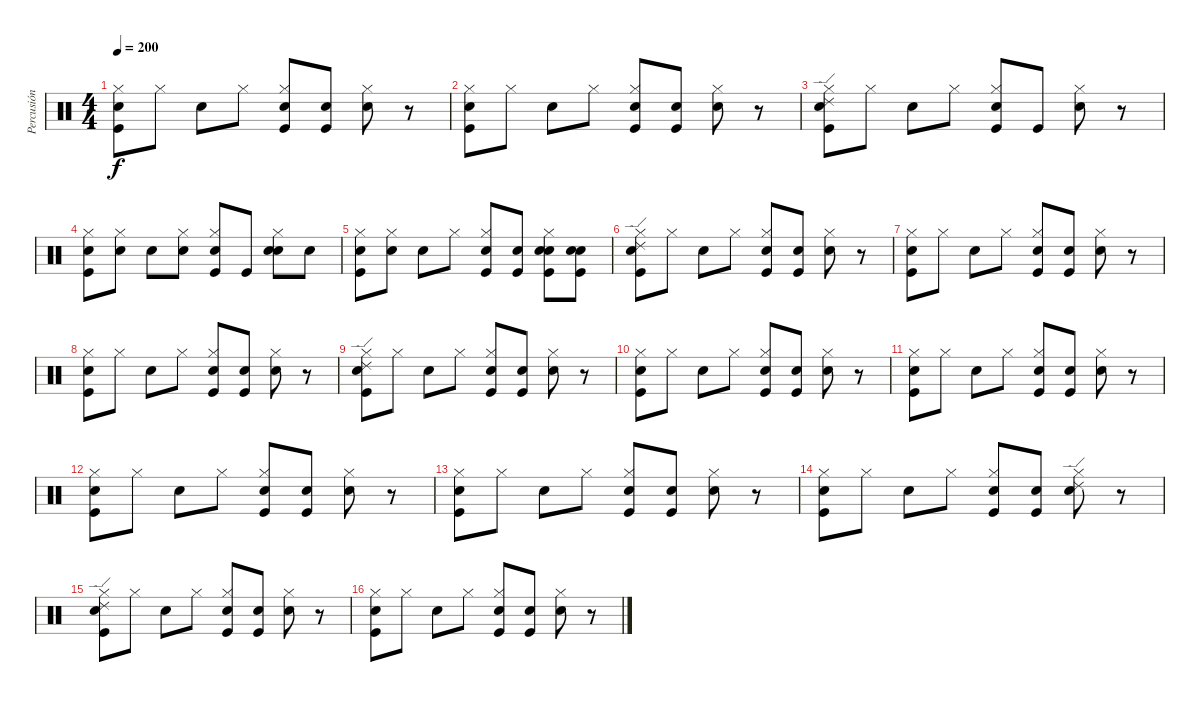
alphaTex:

\track ("Percusión" "Percusión") {instrument percussion}
\staff {score}
\articulation defaults
\ts (4 4)
\tempo 200
\clef neutral
\ks c
("Snare (hit) 2" "Hi-Hat (closed)" "Kick (hit)").8{dy f} "Hi-Hat (closed)".8 "Electric Snare (hit)".8 "Hi-Hat (closed)".8 ("Snare (hit) 2" "Hi-Hat (closed)" "Kick (hit)").8 ("Snare (hit) 2" "Kick (hit)").8 ("Hi-Hat (closed)" "Electric Snare (hit)").8 r.8 |
("Snare (hit) 2" "Hi-Hat (closed)" "Kick (hit)").8 "Hi-Hat (closed)".8 "Electric Snare (hit)".8 "Hi-Hat (closed)".8 ("Snare (hit) 2" "Hi-Hat (closed)" "Kick (hit)").8 ("Snare (hit) 2" "Kick (hit)").8 ("Hi-Hat (closed)" "Electric Snare (hit)").8 r.8 |
("Snare (hit) 2" "Hi-Hat (closed)" "Ride (edge) 2" "Kick (hit)").8 "Hi-Hat (closed)".8 "Electric Snare (hit)".8 "Hi-Hat (closed)".8 ("Snare (hit) 2" "Hi-Hat (closed)" "Kick (hit)").8 "Kick (hit)".8 ("Hi-Hat (closed)" "Electric Snare (hit)").8 r.8 |
("Snare (hit) 2" "Hi-Hat (closed)" "Kick (hit)").8 ("Snare (hit) 2" "Hi-Hat (closed)").8 "Electric Snare (hit)".8 ("Snare (hit) 2" "Hi-Hat (closed)").8 ("Snare (hit) 2" "Hi-Hat (closed)" "Kick (hit)").8 "Kick (hit)".8 ("Snare (hit) 2" "Hi-Hat (closed)" "Electric Snare (hit)").8 "Snare (hit) 2".8 |
("Snare (hit) 2" "Hi-Hat (closed)" "Kick (hit)").8 ("Snare (hit) 2" "Hi-Hat (closed)").8 "Electric Snare (hit)".8 "Hi-Hat (closed)".8 ("Snare (hit) 2" "Hi-Hat (closed)" "Kick (hit)").8 ("Snare (hit) 2" "Kick (hit)").8 ("Snare (hit) 2" "Hi-Hat (closed)" "Electric Snare (hit)" "Kick (hit)").8 ("Snare (hit) 2" "Electric Snare (hit)" "Kick (hit)").8 |
("Snare (hit) 2" "Hi-Hat (closed)" "Ride (edge) 2" "Kick (hit)").8 "Hi-Hat (closed)".8 "Electric Snare (hit)".8 "Hi-Hat (closed)".8 ("Snare (hit) 2" "Hi-Hat (closed)" "Kick (hit)").8 ("Snare (hit) 2" "Kick (hit)").8 ("Hi-Hat (closed)" "Electric Snare (hit)").8 r.8 |
("Snare (hit) 2" "Hi-Hat (closed)" "Kick (hit)").8 "Hi-Hat (closed)".8 "Electric Snare (hit)".8 "Hi-Hat (closed)".8 ("Snare (hit) 2" "Hi-Hat (closed)" "Kick (hit)").8 ("Snare (hit) 2" "Kick (hit)").8 ("Hi-Hat (closed)" "Electric Snare (hit)").8 r.8 |
("Snare (hit) 2" "Hi-Hat (closed)" "Kick (hit)").8 "Hi-Hat (closed)".8 "Electric Snare (hit)".8 "Hi-Hat (closed)".8 ("Snare (hit) 2" "Hi-Hat (closed)" "Kick (hit)").8 ("Snare (hit) 2" "Kick (hit)").8 ("Hi-Hat (closed)" "Electric Snare (hit)").8 r.8 |
("Snare (hit) 2" "Hi-Hat (closed)" "Ride (edge) 2" "Kick (hit)").8 "Hi-Hat (closed)".8 "Electric Snare (hit)".8 "Hi-Hat (closed)".8 ("Snare (hit) 2" "Hi-Hat (closed)" "Kick (hit)").8 ("Snare (hit) 2" "Kick (hit)").8 ("Hi-Hat (closed)" "Electric Snare (hit)").8 r.8 |
("Snare (hit) 2" "Hi-Hat (closed)" "Kick (hit)").8 "Hi-Hat (closed)".8 "Electric Snare (hit)".8 "Hi-Hat (closed)".8 ("Snare (hit) 2" "Hi-Hat (closed)" "Kick (hit)").8 ("Snare (hit) 2" "Kick (hit)").8 ("Hi-Hat (closed)" "Electric Snare (hit)").8 r.8 |
("Snare (hit) 2" "Hi-Hat (closed)" "Kick (hit)").8 "Hi-Hat (closed)".8 "Electric Snare (hit)".8 "Hi-Hat (closed)".8 ("Snare (hit) 2" "Hi-Hat (closed)" "Kick (hit)").8 ("Snare (hit) 2" "Kick (hit)").8 ("Hi-Hat (closed)" "Electric Snare (hit)").8 r.8 |
("Snare (hit) 2" "Hi-Hat (closed)" "Kick (hit)").8 "Hi-Hat (closed)".8 "Electric Snare (hit)".8 "Hi-Hat (closed)".8 ("Snare (hit) 2" "Hi-Hat (closed)" "Kick (hit)").8 ("Snare (hit) 2" "Kick (hit)").8 ("Hi-Hat (closed)" "Electric Snare (hit)").8 r.8 |
("Snare (hit) 2" "Hi-Hat (closed)" "Kick (hit)").8 "Hi-Hat (closed)".8 "Electric Snare (hit)".8 "Hi-Hat (closed)".8 ("Snare (hit) 2" "Hi-Hat (closed)" "Kick (hit)").8 ("Snare (hit) 2" "Kick (hit)").8 ("Hi-Hat (closed)" "Electric Snare (hit)").8 r.8 |
("Snare (hit) 2" "Hi-Hat (closed)" "Kick (hit)").8 "Hi-Hat (closed)".8 "Electric Snare (hit)".8 "Hi-Hat (closed)".8 ("Snare (hit) 2" "Hi-Hat (closed)" "Kick (hit)").8 ("Snare (hit) 2" "Kick (hit)").8 ("Hi-Hat (closed)" "Electric Snare (hit)" "Ride (edge) 2").8 r.8 |
("Snare (hit) 2" "Hi-Hat (closed)" "Ride (edge) 2" "Kick (hit)").8 "Hi-Hat (closed)".8 "Electric Snare (hit)".8 "Hi-Hat (closed)".8 ("Snare (hit) 2" "Hi-Hat (closed)" "Kick (hit)").8 ("Snare (hit) 2" "Kick (hit)").8 ("Hi-Hat (closed)" "Electric Snare (hit)").8 r.8 |
("Snare (hit) 2" "Hi-Hat (closed)" "Kick (hit)").8 "Hi-Hat (closed)".8 "Electric Snare (hit)".8 "Hi-Hat (closed)".8 ("Snare (hit) 2" "Hi-Hat (closed)" "Kick (hit)").8 ("Snare (hit) 2" "Kick (hit)").8 ("Hi-Hat (closed)" "Electric Snare (hit)").8 r.8
